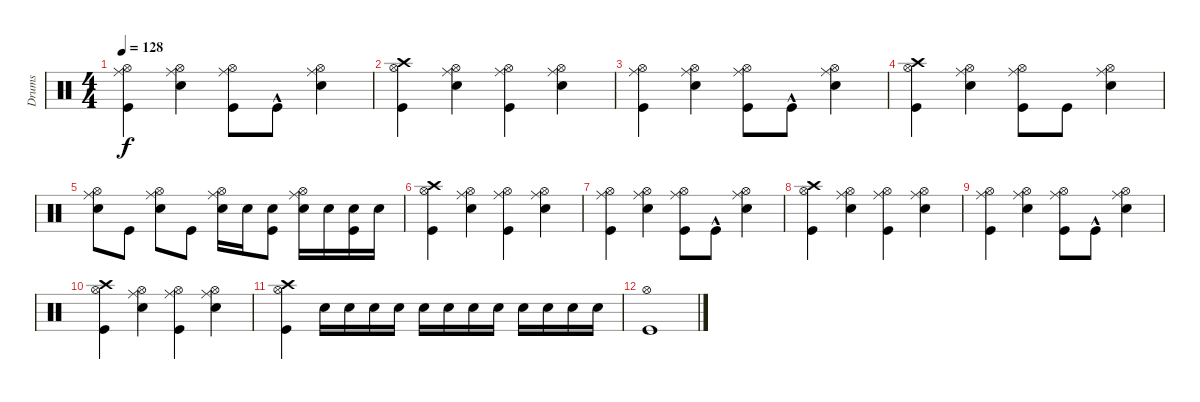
\track ("Drums" "Drums") {instrument percussion}
\staff {score}
\articulation defaults
\ts (4 4)
\tempo 128
\clef neutral
\ks c
("Kick (hit)" "Hi-Hat (open)" "Ride (middle)").4{dy f} ("Snare (hit) 2" "Hi-Hat (open)" "Ride (middle)").4 ("Kick (hit)" "Hi-Hat (open)" "Ride (middle)").8 "Kick (hit)"{hac}.8 ("Snare (hit) 2" "Hi-Hat (open)" "Ride (middle)").4 |
("Kick (hit)" "Hi-Hat (open)" "Crash high (hit)").4 ("Snare (hit) 2" "Hi-Hat (open)" "Ride (middle)").4 ("Kick (hit)" "Hi-Hat (open)" "Ride (middle)").4 ("Snare (hit) 2" "Hi-Hat (open)" "Ride (middle)").4 |
("Kick (hit)" "Hi-Hat (open)" "Ride (middle)").4 ("Snare (hit) 2" "Hi-Hat (open)" "Ride (middle)").4 ("Kick (hit)" "Hi-Hat (open)" "Ride (middle)").8 "Kick (hit)"{hac}.8 ("Snare (hit) 2" "Hi-Hat (open)" "Ride (middle)").4 |
("Kick (hit)" "Hi-Hat (open)" "Crash high (hit)").4 ("Snare (hit) 2" "Hi-Hat (open)" "Ride (middle)").4 ("Kick (hit)" "Hi-Hat (open)" "Ride (middle)").8 "Kick (hit)".8 ("Snare (hit) 2" "Hi-Hat (open)" "Ride (middle)").4 |
("Snare (hit) 2" "Hi-Hat (open)" "Ride (middle)").8 "Kick (hit)".8 ("Snare (hit) 2" "Hi-Hat (open)" "Ride (middle)").8 "Kick (hit)".8 ("Snare (hit) 2" "Hi-Hat (open)" "Ride (middle)").16 "Snare (hit) 2".16 ("Kick (hit)" "Snare (hit) 2").8 ("Snare (hit) 2" "Hi-Hat (open)" "Ride (middle)").16 "Snare (hit) 2".16 ("Kick (hit)" "Snare (hit) 2").16 "Snare (hit) 2".16 |
("Kick (hit)" "Hi-Hat (open)" "Crash high (hit)").4 ("Snare (hit) 2" "Hi-Hat (open)" "Ride (middle)").4 ("Kick (hit)" "Hi-Hat (open)" "Ride (middle)").4 ("Snare (hit) 2" "Hi-Hat (open)" "Ride (middle)").4 |
("Kick (hit)" "Hi-Hat (open)" "Ride (middle)").4 ("Snare (hit) 2" "Hi-Hat (open)" "Ride (middle)").4 ("Kick (hit)" "Hi-Hat (open)" "Ride (middle)").8 "Kick (hit)"{hac}.8 ("Snare (hit) 2" "Hi-Hat (open)" "Ride (middle)").4 |
("Kick (hit)" "Hi-Hat (open)" "Crash high (hit)").4 ("Snare (hit) 2" "Hi-Hat (open)" "Ride (middle)").4 ("Kick (hit)" "Hi-Hat (open)" "Ride (middle)").4 ("Snare (hit) 2" "Hi-Hat (open)" "Ride (middle)").4 |
("Kick (hit)" "Hi-Hat (open)" "Ride (middle)").4 ("Snare (hit) 2" "Hi-Hat (open)" "Ride (middle)").4 ("Kick (hit)" "Hi-Hat (open)" "Ride (middle)").8 "Kick (hit)"{hac}.8 ("Snare (hit) 2" "Hi-Hat (open)" "Ride (middle)").4 |
("Kick (hit)" "Hi-Hat (open)" "Crash high (hit)").4 ("Snare (hit) 2" "Hi-Hat (open)" "Ride (middle)").4 ("Kick (hit)" "Hi-Hat (open)" "Ride (middle)").4 ("Snare (hit) 2" "Hi-Hat (open)" "Ride (middle)").4 |
("Kick (hit)" "Hi-Hat (open)" "Crash high (hit)").4 "Snare (hit) 2".16 "Snare (hit) 2".16 "Snare (hit) 2".16 "Snare (hit) 2".16 "Snare (hit) 2".16 "Snare (hit) 2".16 "Snare (hit) 2".16 "Snare (hit) 2".16 "Snare (hit) 2".16 "Snare (hit) 2".16 "Snare (hit) 2".16 "Snare (hit) 2".16 |
("Kick (hit)" "Hi-Hat (open)").1
